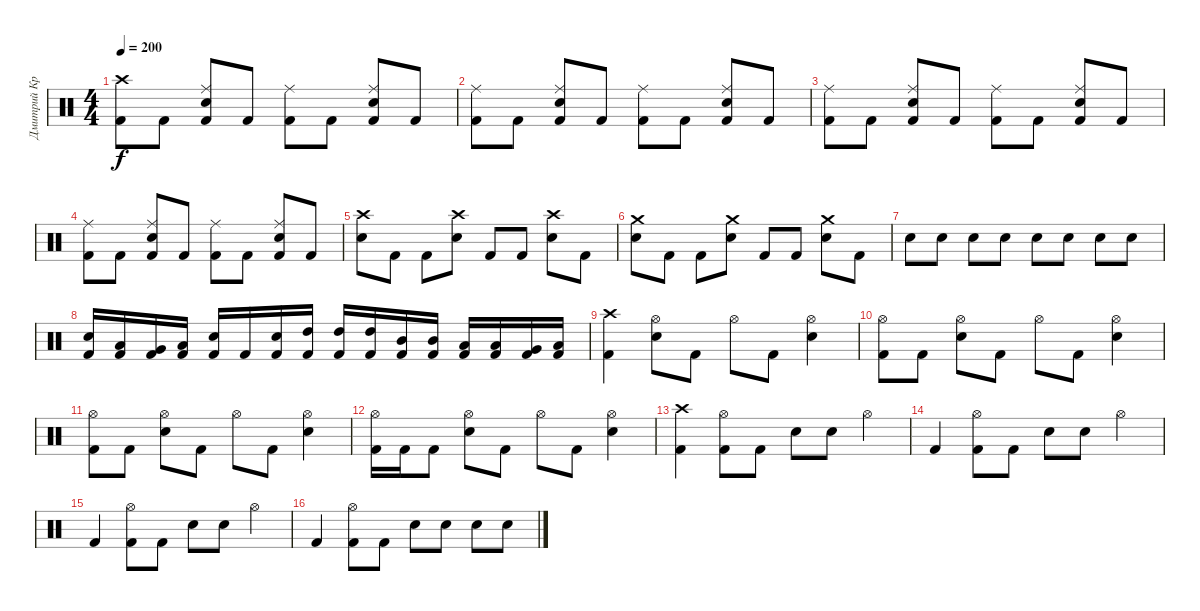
\track ("Дмитрий Кривенков" "Дмитрий Кр") {instrument percussion}
\staff {score}
\articulation defaults
\ts (4 4)
\tempo 200
\clef neutral
\ks c
("Crash high (hit)" "Kick (hit) 2").8{dy f} "Kick (hit) 2".8 ("Ride (middle)" "Electric Snare (hit)" "Kick (hit) 2").8 "Kick (hit) 2".8 ("Ride (middle)" "Kick (hit) 2").8 "Kick (hit) 2".8 ("Ride (middle)" "Electric Snare (hit)" "Kick (hit) 2").8 "Kick (hit) 2".8 |
("Ride (middle)" "Kick (hit) 2").8 "Kick (hit) 2".8 ("Ride (middle)" "Electric Snare (hit)" "Kick (hit) 2").8 "Kick (hit) 2".8 ("Ride (middle)" "Kick (hit) 2").8 "Kick (hit) 2".8 ("Ride (middle)" "Electric Snare (hit)" "Kick (hit) 2").8 "Kick (hit) 2".8 |
("Ride (middle)" "Kick (hit) 2").8 "Kick (hit) 2".8 ("Ride (middle)" "Electric Snare (hit)" "Kick (hit) 2").8 "Kick (hit) 2".8 ("Ride (middle)" "Kick (hit) 2").8 "Kick (hit) 2".8 ("Ride (middle)" "Electric Snare (hit)" "Kick (hit) 2").8 "Kick (hit) 2".8 |
("Ride (middle)" "Kick (hit) 2").8 "Kick (hit) 2".8 ("Ride (middle)" "Electric Snare (hit)" "Kick (hit) 2").8 "Kick (hit) 2".8 ("Ride (middle)" "Kick (hit) 2").8 "Kick (hit) 2".8 ("Ride (middle)" "Electric Snare (hit)" "Kick (hit) 2").8 "Kick (hit) 2".8 |
("Crash high (hit)" "Electric Snare (hit)").8 "Kick (hit) 2".8 "Kick (hit) 2".8 ("Crash high (hit)" "Electric Snare (hit)").8 "Kick (hit) 2".8 "Kick (hit) 2".8 ("Crash high (hit)" "Electric Snare (hit)").8 "Kick (hit) 2".8 |
("Crash medium (hit)" "Electric Snare (hit)").8 "Kick (hit) 2".8 "Kick (hit) 2".8 ("Crash medium (hit)" "Electric Snare (hit)").8 "Kick (hit) 2".8 "Kick (hit) 2".8 ("Crash medium (hit)" "Electric Snare (hit)").8 "Kick (hit) 2".8 |
"Electric Snare (hit)".8 "Electric Snare (hit)".8 "Electric Snare (hit)".8 "Electric Snare (hit)".8 "Electric Snare (hit)".8 "Electric Snare (hit)".8 "Electric Snare (hit)".8 "Electric Snare (hit)".8 |
("Electric Snare (hit)" "Kick (hit) 2").16 ("Low Tom (hit)" "Kick (hit) 2").16 ("Very Low Tom (hit)" "Kick (hit) 2").16 ("Low Floor Tom (hit)" "Kick (hit) 2").16 ("Electric Snare (hit)" "Kick (hit) 2").16 "Kick (hit) 2".16 ("Electric Snare (hit)" "Kick (hit) 2").16 ("High Tom (hit)" "Kick (hit) 2").16 ("High Tom (hit)" "Kick (hit) 2").16 ("High Tom (hit)" "Kick (hit) 2").16 ("Mid Tom (hit)" "Kick (hit) 2").16 ("Mid Tom (hit)" "Kick (hit) 2").16 ("Low Tom (hit)" "Kick (hit) 2").16 ("Low Tom (hit)" "Kick (hit) 2").16 ("Very Low Tom (hit)" "Kick (hit) 2").16 ("Low Floor Tom (hit)" "Kick (hit) 2").16 |
("Crash high (hit)" "Kick (hit) 2").4 ("Hi-Hat (open)" "Electric Snare (hit)").8 "Kick (hit) 2".8 "Hi-Hat (open)".8 "Kick (hit) 2".8 ("Hi-Hat (open)" "Electric Snare (hit)").4 |
("Hi-Hat (open)" "Kick (hit) 2").8 "Kick (hit) 2".8 ("Hi-Hat (open)" "Electric Snare (hit)").8 "Kick (hit) 2".8 "Hi-Hat (open)".8 "Kick (hit) 2".8 ("Hi-Hat (open)" "Electric Snare (hit)").4 |
("Hi-Hat (open)" "Kick (hit) 2").8 "Kick (hit) 2".8 ("Hi-Hat (open)" "Electric Snare (hit)").8 "Kick (hit) 2".8 "Hi-Hat (open)".8 "Kick (hit) 2".8 ("Hi-Hat (open)" "Electric Snare (hit)").4 |
("Hi-Hat (open)" "Kick (hit) 2").16 "Kick (hit) 2".16 "Kick (hit) 2".8 ("Hi-Hat (open)" "Electric Snare (hit)").8 "Kick (hit) 2".8 "Hi-Hat (open)".8 "Kick (hit) 2".8 ("Hi-Hat (open)" "Electric Snare (hit)").4 |
("Crash high (hit)" "Kick (hit) 2").4 ("Hi-Hat (open)" "Kick (hit) 2").8 "Kick (hit) 2".8 "Electric Snare (hit)".8 "Electric Snare (hit)".8 "Hi-Hat (open)".4 |
"Kick (hit) 2".4 ("Hi-Hat (open)" "Kick (hit) 2").8 "Kick (hit) 2".8 "Electric Snare (hit)".8 "Electric Snare (hit)".8 "Hi-Hat (open)".4 |
"Kick (hit) 2".4 ("Hi-Hat (open)" "Kick (hit) 2").8 "Kick (hit) 2".8 "Electric Snare (hit)".8 "Electric Snare (hit)".8 "Hi-Hat (open)".4 |
"Kick (hit) 2".4 ("Hi-Hat (open)" "Kick (hit) 2").8 "Kick (hit) 2".8 "Electric Snare (hit)".8 "Electric Snare (hit)".8 "Electric Snare (hit)".8 "Electric Snare (hit)".8
